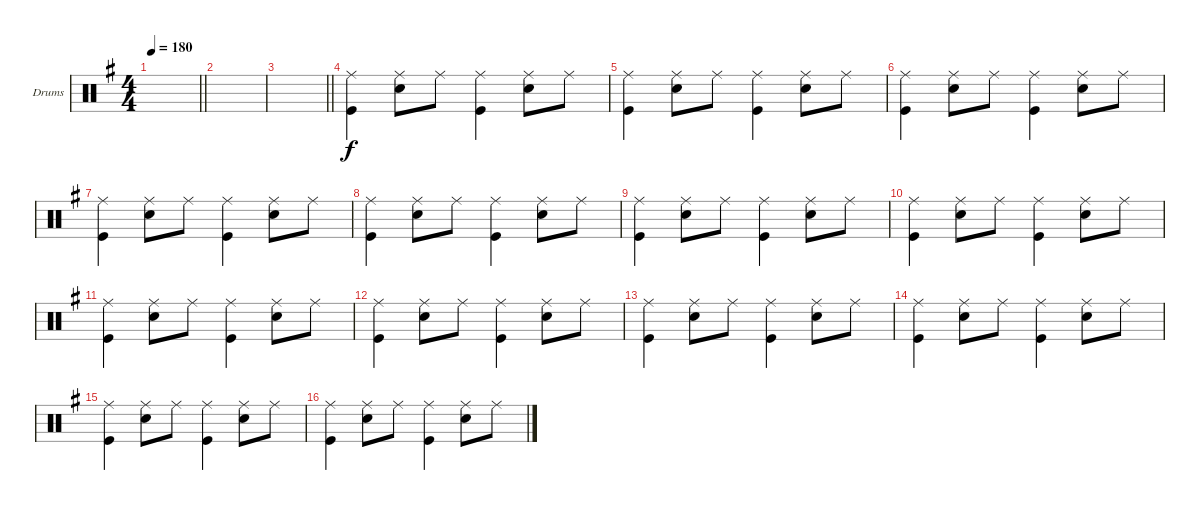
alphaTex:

\defaultSystemsLayout 4
\bracketExtendMode groupsimilarinstruments
\firstSystemTrackNameOrientation horizontal
\otherSystemsTrackNameOrientation horizontal
\track ("Drums Ringo" "Drums") {instrument percussion}
\staff {score}
\articulation defaults
\ts (4 4)
\tempo 180
\clef neutral
\scale
0.504425
\barLineRight lightlight
\ks g
|
\scale
0.247788 |
\scale
0.247788
\barLineRight lightlight
|
\scale
0.333333 ("Ride (middle)" "Kick (hit)").4 ("Snare (hit) 2" "Ride (middle)").8 "Ride (middle)".8 ("Ride (middle)" "Kick (hit)").4 ("Snare (hit) 2" "Ride (middle)").8 "Ride (middle)".8 |
\scale
0.333333 ("Ride (middle)" "Kick (hit)").4 ("Snare (hit) 2" "Ride (middle)").8 "Ride (middle)".8 ("Ride (middle)" "Kick (hit)").4 ("Snare (hit) 2" "Ride (middle)").8 "Ride (middle)".8 |
\scale
0.333333 ("Ride (middle)" "Kick (hit)").4 ("Snare (hit) 2" "Ride (middle)").8 "Ride (middle)".8 ("Ride (middle)" "Kick (hit)").4 ("Snare (hit) 2" "Ride (middle)").8 "Ride (middle)".8 |
\scale
0.333333 ("Ride (middle)" "Kick (hit)").4 ("Snare (hit) 2" "Ride (middle)").8 "Ride (middle)".8 ("Ride (middle)" "Kick (hit)").4 ("Snare (hit) 2" "Ride (middle)").8 "Ride (middle)".8 |
\scale
0.333333 ("Ride (middle)" "Kick (hit)").4 ("Snare (hit) 2" "Ride (middle)").8 "Ride (middle)".8 ("Ride (middle)" "Kick (hit)").4 ("Snare (hit) 2" "Ride (middle)").8 "Ride (middle)".8 |
\scale
0.333333 ("Ride (middle)" "Kick (hit)").4 ("Snare (hit) 2" "Ride (middle)").8 "Ride (middle)".8 ("Ride (middle)" "Kick (hit)").4 ("Snare (hit) 2" "Ride (middle)").8 "Ride (middle)".8 |
\scale
0.333333 ("Ride (middle)" "Kick (hit)").4 ("Snare (hit) 2" "Ride (middle)").8 "Ride (middle)".8 ("Ride (middle)" "Kick (hit)").4 ("Snare (hit) 2" "Ride (middle)").8 "Ride (middle)".8 |
\scale
0.333333 ("Ride (middle)" "Kick (hit)").4 ("Snare (hit) 2" "Ride (middle)").8 "Ride (middle)".8 ("Ride (middle)" "Kick (hit)").4 ("Snare (hit) 2" "Ride (middle)").8 "Ride (middle)".8 |
\scale
0.333333 ("Ride (middle)" "Kick (hit)").4 ("Snare (hit) 2" "Ride (middle)").8 "Ride (middle)".8 ("Ride (middle)" "Kick (hit)").4 ("Snare (hit) 2" "Ride (middle)").8 "Ride (middle)".8 |
\scale
0.333333 ("Ride (middle)" "Kick (hit)").4 ("Snare (hit) 2" "Ride (middle)").8 "Ride (middle)".8 ("Ride (middle)" "Kick (hit)").4 ("Snare (hit) 2" "Ride (middle)").8 "Ride (middle)".8 |
\scale
0.333333 ("Ride (middle)" "Kick (hit)").4 ("Snare (hit) 2" "Ride (middle)").8 "Ride (middle)".8 ("Ride (middle)" "Kick (hit)").4 ("Snare (hit) 2" "Ride (middle)").8 "Ride (middle)".8 |
\scale
0.333333 ("Ride (middle)" "Kick (hit)").4 ("Snare (hit) 2" "Ride (middle)").8 "Ride (middle)".8 ("Ride (middle)" "Kick (hit)").4 ("Snare (hit) 2" "Ride (middle)").8 "Ride (middle)".8 |
\scale
0.333333 ("Ride (middle)" "Kick (hit)").4 ("Snare (hit) 2" "Ride (middle)").8 "Ride (middle)".8 ("Ride (middle)" "Kick (hit)").4 ("Snare (hit) 2" "Ride (middle)").8 "Ride (middle)".8
